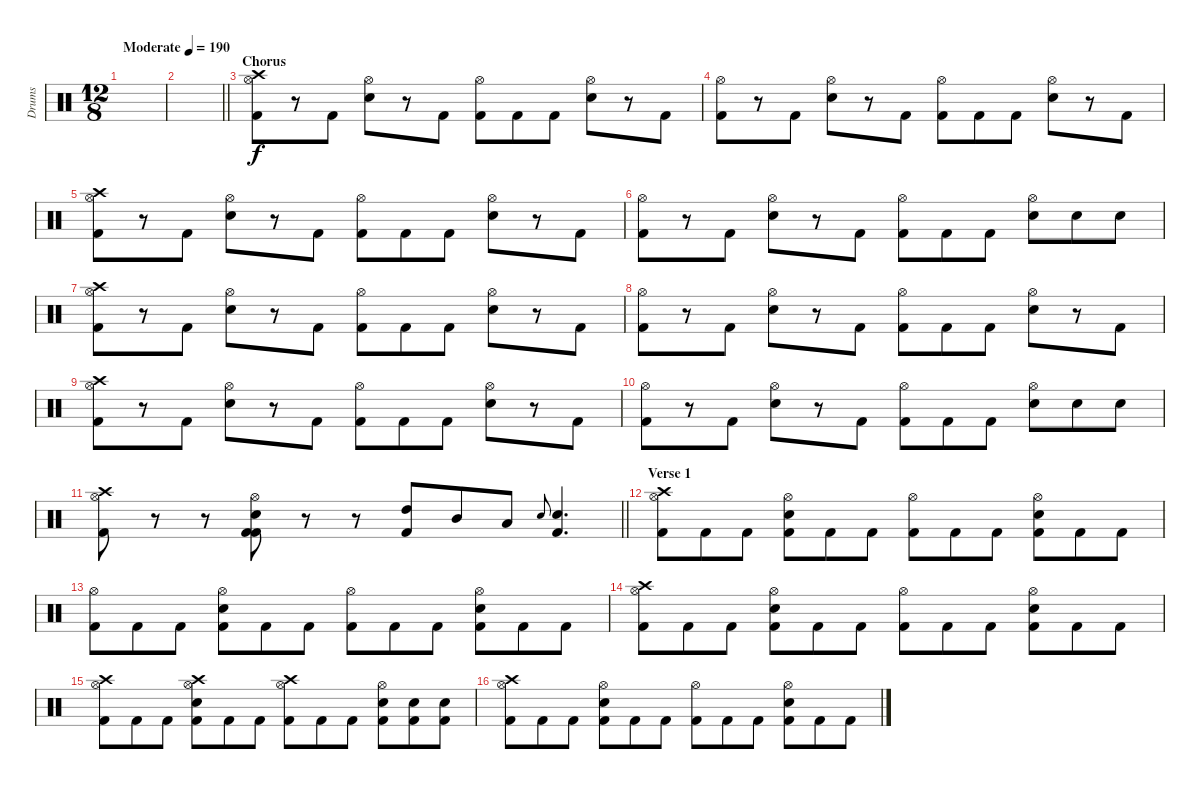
\track ("Drums" "Drums") {instrument percussion}
\staff {score}
\articulation defaults
\ts (12 8)
\tempo (190 "Moderate")
\clef neutral
\ks c
|
\barLineRight lightlight
|
\section ("" "Chorus")
("Crash high (hit)" "Hi-Hat (open)" "Kick (hit) 2").8 r.8 "Kick (hit) 2".8 ("Hi-Hat (open)" "Snare (hit) 2").8 r.8 "Kick (hit) 2".8 ("Hi-Hat (open)" "Kick (hit) 2").8 "Kick (hit) 2".8 "Kick (hit) 2".8 ("Hi-Hat (open)" "Snare (hit) 2").8 r.8 "Kick (hit) 2".8 |
("Hi-Hat (open)" "Kick (hit) 2").8 r.8 "Kick (hit) 2".8 ("Hi-Hat (open)" "Snare (hit) 2").8 r.8 "Kick (hit) 2".8 ("Hi-Hat (open)" "Kick (hit) 2").8 "Kick (hit) 2".8 "Kick (hit) 2".8 ("Hi-Hat (open)" "Snare (hit) 2").8 r.8 "Kick (hit) 2".8 |
("Crash high (hit)" "Hi-Hat (open)" "Kick (hit) 2").8 r.8 "Kick (hit) 2".8 ("Hi-Hat (open)" "Snare (hit) 2").8 r.8 "Kick (hit) 2".8 ("Hi-Hat (open)" "Kick (hit) 2").8 "Kick (hit) 2".8 "Kick (hit) 2".8 ("Hi-Hat (open)" "Snare (hit) 2").8 r.8 "Kick (hit) 2".8 |
("Hi-Hat (open)" "Kick (hit) 2").8 r.8 "Kick (hit) 2".8 ("Hi-Hat (open)" "Snare (hit) 2").8 r.8 "Kick (hit) 2".8 ("Hi-Hat (open)" "Kick (hit) 2").8 "Kick (hit) 2".8 "Kick (hit) 2".8 ("Hi-Hat (open)" "Snare (hit) 2").8 "Snare (hit) 2".8 "Snare (hit) 2".8 |
("Crash high (hit)" "Hi-Hat (open)" "Kick (hit) 2").8 r.8 "Kick (hit) 2".8 ("Hi-Hat (open)" "Snare (hit) 2").8 r.8 "Kick (hit) 2".8 ("Hi-Hat (open)" "Kick (hit) 2").8 "Kick (hit) 2".8 "Kick (hit) 2".8 ("Hi-Hat (open)" "Snare (hit) 2").8 r.8 "Kick (hit) 2".8 |
("Hi-Hat (open)" "Kick (hit) 2").8 r.8 "Kick (hit) 2".8 ("Hi-Hat (open)" "Snare (hit) 2").8 r.8 "Kick (hit) 2".8 ("Hi-Hat (open)" "Kick (hit) 2").8 "Kick (hit) 2".8 "Kick (hit) 2".8 ("Hi-Hat (open)" "Snare (hit) 2").8 r.8 "Kick (hit) 2".8 |
("Crash high (hit)" "Hi-Hat (open)" "Kick (hit) 2").8 r.8 "Kick (hit) 2".8 ("Hi-Hat (open)" "Snare (hit) 2").8 r.8 "Kick (hit) 2".8 ("Hi-Hat (open)" "Kick (hit) 2").8 "Kick (hit) 2".8 "Kick (hit) 2".8 ("Hi-Hat (open)" "Snare (hit) 2").8 r.8 "Kick (hit) 2".8 |
("Hi-Hat (open)" "Kick (hit) 2").8 r.8 "Kick (hit) 2".8 ("Hi-Hat (open)" "Snare (hit) 2").8 r.8 "Kick (hit) 2".8 ("Hi-Hat (open)" "Kick (hit) 2").8 "Kick (hit) 2".8 "Kick (hit) 2".8 ("Hi-Hat (open)" "Snare (hit) 2").8 "Snare (hit) 2".8 "Snare (hit) 2".8 |
\barLineRight lightlight
("Crash high (hit)" "Hi-Hat (open)" "Kick (hit) 2").8 r.8 r.8 ("Hi-Hat (open)" "Kick (hit) 2" "Snare (hit) 2" "Kick (hit) 2").8 r.8 r.8 ("High Tom (hit)" "Kick (hit) 2").8 "Mid Tom (hit)".8 "Low Tom (hit)".8 "Snare (hit) 2".8{gr onbeat} ("Snare (hit) 2" "Kick (hit) 2").4{d} |
\section ("" "Verse 1")
("Crash high (hit)" "Hi-Hat (open)" "Kick (hit) 2").8 "Kick (hit) 2".8 "Kick (hit) 2".8 ("Hi-Hat (open)" "Snare (hit) 2" "Kick (hit) 2").8 "Kick (hit) 2".8 "Kick (hit) 2".8 ("Hi-Hat (open)" "Kick (hit) 2").8 "Kick (hit) 2".8 "Kick (hit) 2".8 ("Hi-Hat (open)" "Snare (hit) 2" "Kick (hit) 2").8 "Kick (hit) 2".8 "Kick (hit) 2".8 |
("Hi-Hat (open)" "Kick (hit) 2").8 "Kick (hit) 2".8 "Kick (hit) 2".8 ("Hi-Hat (open)" "Snare (hit) 2" "Kick (hit) 2").8 "Kick (hit) 2".8 "Kick (hit) 2".8 ("Hi-Hat (open)" "Kick (hit) 2").8 "Kick (hit) 2".8 "Kick (hit) 2".8 ("Hi-Hat (open)" "Snare (hit) 2" "Kick (hit) 2").8 "Kick (hit) 2".8 "Kick (hit) 2".8 |
("Crash high (hit)" "Hi-Hat (open)" "Kick (hit) 2").8 "Kick (hit) 2".8 "Kick (hit) 2".8 ("Hi-Hat (open)" "Snare (hit) 2" "Kick (hit) 2").8 "Kick (hit) 2".8 "Kick (hit) 2".8 ("Hi-Hat (open)" "Kick (hit) 2").8 "Kick (hit) 2".8 "Kick (hit) 2".8 ("Hi-Hat (open)" "Snare (hit) 2" "Kick (hit) 2").8 "Kick (hit) 2".8 "Kick (hit) 2".8 |
("Crash high (hit)" "Hi-Hat (open)" "Kick (hit) 2").8 "Kick (hit) 2".8 "Kick (hit) 2".8 ("Crash high (hit)" "Hi-Hat (open)" "Snare (hit) 2" "Kick (hit) 2").8 "Kick (hit) 2".8 "Kick (hit) 2".8 ("Crash high (hit)" "Hi-Hat (open)" "Kick (hit) 2").8 "Kick (hit) 2".8 "Kick (hit) 2".8 ("Hi-Hat (open)" "Snare (hit) 2" "Kick (hit) 2").8 ("Snare (hit) 2" "Kick (hit) 2").8 ("Snare (hit) 2" "Kick (hit) 2").8 |
("Crash high (hit)" "Hi-Hat (open)" "Kick (hit) 2").8 "Kick (hit) 2".8 "Kick (hit) 2".8 ("Hi-Hat (open)" "Snare (hit) 2" "Kick (hit) 2").8 "Kick (hit) 2".8 "Kick (hit) 2".8 ("Hi-Hat (open)" "Kick (hit) 2").8 "Kick (hit) 2".8 "Kick (hit) 2".8 ("Hi-Hat (open)" "Snare (hit) 2" "Kick (hit) 2").8 "Kick (hit) 2".8 "Kick (hit) 2".8
